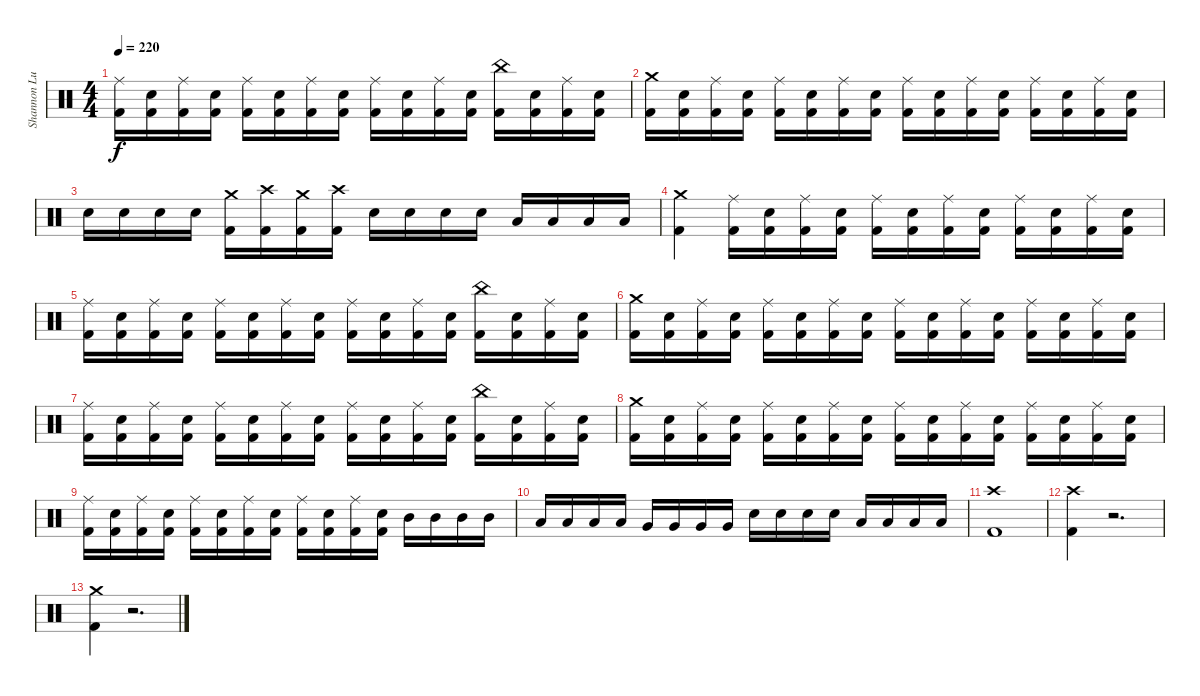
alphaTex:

\track ("Shannon Lucas (Drums)" "Shannon Lu") {instrument percussion}
\staff {score}
\articulation defaults
\ts (4 4)
\tempo 220
\clef neutral
\ks c
("Ride (middle)" "Kick (hit) 2").16{dy f} ("Snare (hit) 2" "Kick (hit) 2").16 ("Ride (middle)" "Kick (hit) 2").16 ("Snare (hit) 2" "Kick (hit) 2").16 ("Ride (middle)" "Kick (hit) 2").16 ("Snare (hit) 2" "Kick (hit) 2").16 ("Ride (middle)" "Kick (hit) 2").16 ("Snare (hit) 2" "Kick (hit) 2").16 ("Ride (middle)" "Kick (hit) 2").16 ("Snare (hit) 2" "Kick (hit) 2").16 ("Ride (middle)" "Kick (hit) 2").16 ("Snare (hit) 2" "Kick (hit) 2").16 ("China (hit)" "Kick (hit) 2").16 ("Snare (hit) 2" "Kick (hit) 2").16 ("Ride (middle)" "Kick (hit) 2").16 ("Snare (hit) 2" "Kick (hit) 2").16 |
("Crash medium (hit)" "Kick (hit) 2").16 ("Snare (hit) 2" "Kick (hit) 2").16 ("Ride (middle)" "Kick (hit) 2").16 ("Snare (hit) 2" "Kick (hit) 2").16 ("Ride (middle)" "Kick (hit) 2").16 ("Snare (hit) 2" "Kick (hit) 2").16 ("Ride (middle)" "Kick (hit) 2").16 ("Snare (hit) 2" "Kick (hit) 2").16 ("Ride (middle)" "Kick (hit) 2").16 ("Snare (hit) 2" "Kick (hit) 2").16 ("Ride (middle)" "Kick (hit) 2").16 ("Snare (hit) 2" "Kick (hit) 2").16 ("Ride (middle)" "Kick (hit) 2").16 ("Snare (hit) 2" "Kick (hit) 2").16 ("Ride (middle)" "Kick (hit) 2").16 ("Snare (hit) 2" "Kick (hit) 2").16 |
"Snare (hit) 2".16 "Snare (hit) 2".16 "Snare (hit) 2".16 "Snare (hit) 2".16 ("Crash medium (hit)" "Kick (hit) 2").16 ("Crash high (hit)" "Kick (hit) 2").16 ("Crash medium (hit)" "Kick (hit) 2").16 ("Crash high (hit)" "Kick (hit) 2").16 "Snare (hit) 2".16 "Snare (hit) 2".16 "Snare (hit) 2".16 "Snare (hit) 2".16 "Low Tom (hit)".16 "Low Tom (hit)".16 "Low Tom (hit)".16 "Low Tom (hit)".16 |
("Crash medium (hit)" "Kick (hit) 2").4 ("Ride (middle)" "Kick (hit) 2").16 ("Snare (hit) 2" "Kick (hit) 2").16 ("Ride (middle)" "Kick (hit) 2").16 ("Snare (hit) 2" "Kick (hit) 2").16 ("Ride (middle)" "Kick (hit) 2").16 ("Snare (hit) 2" "Kick (hit) 2").16 ("Ride (middle)" "Kick (hit) 2").16 ("Snare (hit) 2" "Kick (hit) 2").16 ("Ride (middle)" "Kick (hit) 2").16 ("Snare (hit) 2" "Kick (hit) 2").16 ("Ride (middle)" "Kick (hit) 2").16 ("Snare (hit) 2" "Kick (hit) 2").16 |
("Ride (middle)" "Kick (hit) 2").16 ("Snare (hit) 2" "Kick (hit) 2").16 ("Ride (middle)" "Kick (hit) 2").16 ("Snare (hit) 2" "Kick (hit) 2").16 ("Ride (middle)" "Kick (hit) 2").16 ("Snare (hit) 2" "Kick (hit) 2").16 ("Ride (middle)" "Kick (hit) 2").16 ("Snare (hit) 2" "Kick (hit) 2").16 ("Ride (middle)" "Kick (hit) 2").16 ("Snare (hit) 2" "Kick (hit) 2").16 ("Ride (middle)" "Kick (hit) 2").16 ("Snare (hit) 2" "Kick (hit) 2").16 ("China (hit)" "Kick (hit) 2").16 ("Snare (hit) 2" "Kick (hit) 2").16 ("Ride (middle)" "Kick (hit) 2").16 ("Snare (hit) 2" "Kick (hit) 2").16 |
("Crash medium (hit)" "Kick (hit) 2").16 ("Snare (hit) 2" "Kick (hit) 2").16 ("Ride (middle)" "Kick (hit) 2").16 ("Snare (hit) 2" "Kick (hit) 2").16 ("Ride (middle)" "Kick (hit) 2").16 ("Snare (hit) 2" "Kick (hit) 2").16 ("Ride (middle)" "Kick (hit) 2").16 ("Snare (hit) 2" "Kick (hit) 2").16 ("Ride (middle)" "Kick (hit) 2").16 ("Snare (hit) 2" "Kick (hit) 2").16 ("Ride (middle)" "Kick (hit) 2").16 ("Snare (hit) 2" "Kick (hit) 2").16 ("Ride (middle)" "Kick (hit) 2").16 ("Snare (hit) 2" "Kick (hit) 2").16 ("Ride (middle)" "Kick (hit) 2").16 ("Snare (hit) 2" "Kick (hit) 2").16 |
("Ride (middle)" "Kick (hit) 2").16 ("Snare (hit) 2" "Kick (hit) 2").16 ("Ride (middle)" "Kick (hit) 2").16 ("Snare (hit) 2" "Kick (hit) 2").16 ("Ride (middle)" "Kick (hit) 2").16 ("Snare (hit) 2" "Kick (hit) 2").16 ("Ride (middle)" "Kick (hit) 2").16 ("Snare (hit) 2" "Kick (hit) 2").16 ("Ride (middle)" "Kick (hit) 2").16 ("Snare (hit) 2" "Kick (hit) 2").16 ("Ride (middle)" "Kick (hit) 2").16 ("Snare (hit) 2" "Kick (hit) 2").16 ("China (hit)" "Kick (hit) 2").16 ("Snare (hit) 2" "Kick (hit) 2").16 ("Ride (middle)" "Kick (hit) 2").16 ("Snare (hit) 2" "Kick (hit) 2").16 |
("Crash medium (hit)" "Kick (hit) 2").16 ("Snare (hit) 2" "Kick (hit) 2").16 ("Ride (middle)" "Kick (hit) 2").16 ("Snare (hit) 2" "Kick (hit) 2").16 ("Ride (middle)" "Kick (hit) 2").16 ("Snare (hit) 2" "Kick (hit) 2").16 ("Ride (middle)" "Kick (hit) 2").16 ("Snare (hit) 2" "Kick (hit) 2").16 ("Ride (middle)" "Kick (hit) 2").16 ("Snare (hit) 2" "Kick (hit) 2").16 ("Ride (middle)" "Kick (hit) 2").16 ("Snare (hit) 2" "Kick (hit) 2").16 ("Ride (middle)" "Kick (hit) 2").16 ("Snare (hit) 2" "Kick (hit) 2").16 ("Ride (middle)" "Kick (hit) 2").16 ("Snare (hit) 2" "Kick (hit) 2").16 |
("Ride (middle)" "Kick (hit) 2").16 ("Snare (hit) 2" "Kick (hit) 2").16 ("Ride (middle)" "Kick (hit) 2").16 ("Snare (hit) 2" "Kick (hit) 2").16 ("Ride (middle)" "Kick (hit) 2").16 ("Snare (hit) 2" "Kick (hit) 2").16 ("Ride (middle)" "Kick (hit) 2").16 ("Snare (hit) 2" "Kick (hit) 2").16 ("Ride (middle)" "Kick (hit) 2").16 ("Snare (hit) 2" "Kick (hit) 2").16 ("Ride (middle)" "Kick (hit) 2").16 ("Snare (hit) 2" "Kick (hit) 2").16 "Mid Tom (hit)".16 "Mid Tom (hit)".16 "Mid Tom (hit)".16 "Mid Tom (hit)".16 |
"Low Tom (hit)".16 "Low Tom (hit)".16 "Low Tom (hit)".16 "Low Tom (hit)".16 "Very Low Tom (hit)".16 "Very Low Tom (hit)".16 "Very Low Tom (hit)".16 "Very Low Tom (hit)".16 "Snare (hit) 2".16 "Snare (hit) 2".16 "Snare (hit) 2".16 "Snare (hit) 2".16 "Low Floor Tom (hit)".16 "Low Floor Tom (hit)".16 "Low Floor Tom (hit)".16 "Low Floor Tom (hit)".16 |
("Crash high (hit)" "Kick (hit) 2").1 |
("Kick (hit) 2" "Crash high (hit)").4 r.2{d} |
("Crash medium (hit)" "Kick (hit) 2").4 r.2{d volume 0}
